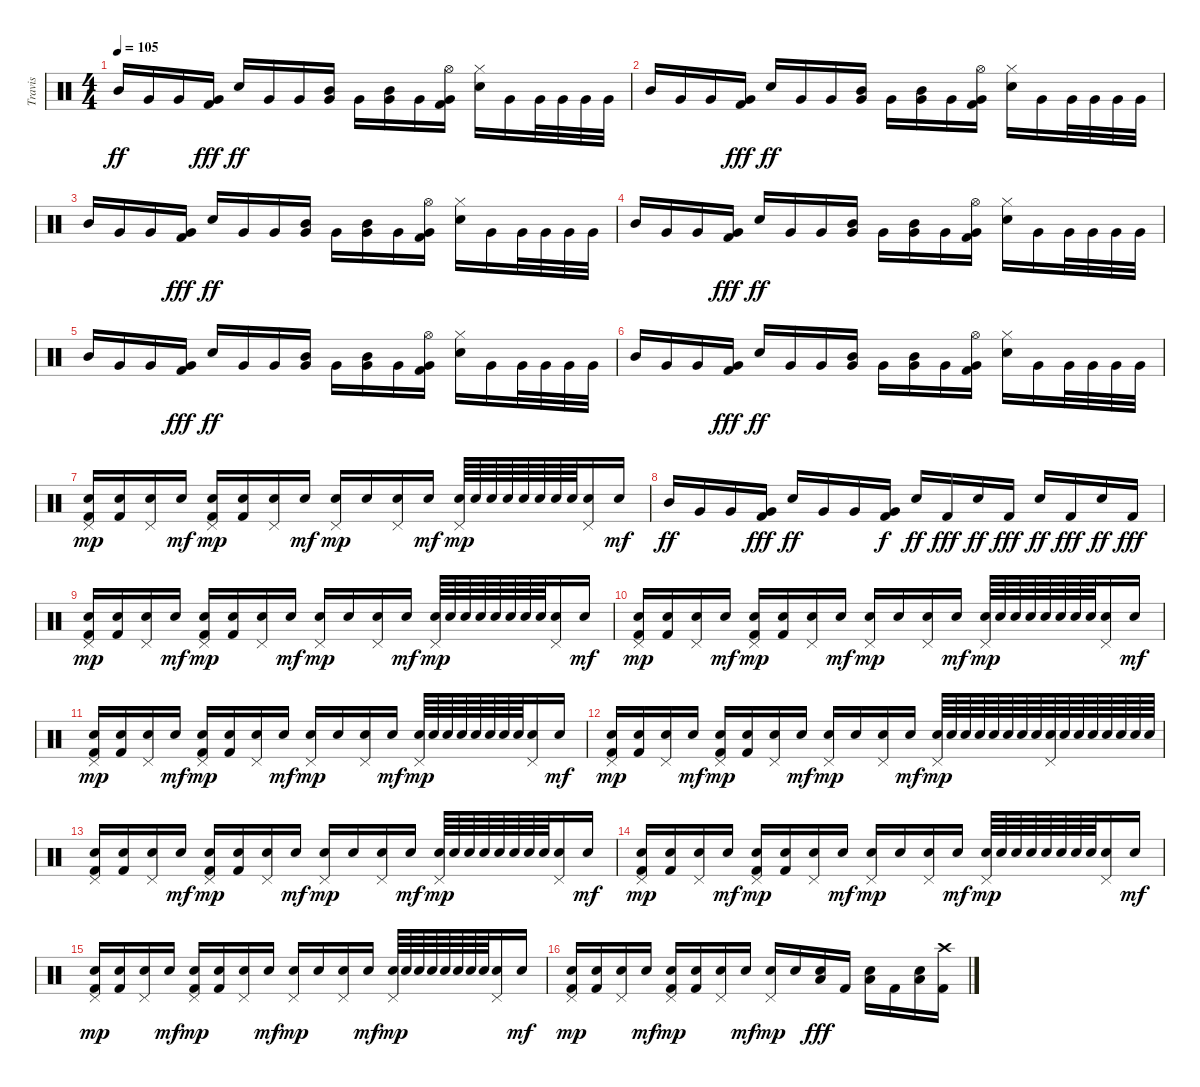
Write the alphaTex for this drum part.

\track ("Travis" "Travis") {instrument percussion}
\staff {score}
\articulation defaults
\ts (4 4)
\tempo 105
\clef neutral
\ks c "Mid Tom (hit)".16{dy ff} "Very Low Tom (hit)".16 "Very Low Tom (hit)".16
("Very Low Tom (hit)" "Kick (hit) 2").16{dy fff} "Electric Snare (hit)".16{dy ff} "Very Low Tom (hit)".16 "Very Low Tom (hit)".16 ("Mid Tom (hit)" "Very Low Tom (hit)").16 "Very Low Tom (hit)".16 ("Mid Tom (hit)" "Very Low Tom (hit)").16 "Very Low Tom (hit)".16 ("Hi-Hat (open)" "Very Low Tom (hit)" "Kick (hit) 2").16 ("Hi-Hat (closed)" "Electric Snare (hit)").16 "Very Low Tom (hit)".16 "Very Low Tom (hit)".32 "Very Low Tom (hit)".32 "Very Low Tom (hit)".32 "Very Low Tom (hit)".32 |
"Mid Tom (hit)".16 "Very Low Tom (hit)".16 "Very Low Tom (hit)".16 ("Very Low Tom (hit)" "Kick (hit) 2").16{dy fff} "Electric Snare (hit)".16{dy ff} "Very Low Tom (hit)".16 "Very Low Tom (hit)".16 ("Mid Tom (hit)" "Very Low Tom (hit)").16 "Very Low Tom (hit)".16 ("Mid Tom (hit)" "Very Low Tom (hit)").16 "Very Low Tom (hit)".16 ("Hi-Hat (open)" "Very Low Tom (hit)" "Kick (hit) 2").16 ("Hi-Hat (closed)" "Electric Snare (hit)").16 "Very Low Tom (hit)".16 "Very Low Tom (hit)".32 "Very Low Tom (hit)".32 "Very Low Tom (hit)".32 "Very Low Tom (hit)".32 |
"Mid Tom (hit)".16 "Very Low Tom (hit)".16 "Very Low Tom (hit)".16 ("Very Low Tom (hit)" "Kick (hit) 2").16{dy fff} "Electric Snare (hit)".16{dy ff} "Very Low Tom (hit)".16 "Very Low Tom (hit)".16 ("Mid Tom (hit)" "Very Low Tom (hit)").16 "Very Low Tom (hit)".16 ("Mid Tom (hit)" "Very Low Tom (hit)").16 "Very Low Tom (hit)".16 ("Hi-Hat (open)" "Very Low Tom (hit)" "Kick (hit) 2").16 ("Hi-Hat (closed)" "Electric Snare (hit)").16 "Very Low Tom (hit)".16 "Very Low Tom (hit)".32 "Very Low Tom (hit)".32 "Very Low Tom (hit)".32 "Very Low Tom (hit)".32 |
"Mid Tom (hit)".16 "Very Low Tom (hit)".16 "Very Low Tom (hit)".16 ("Very Low Tom (hit)" "Kick (hit) 2").16{dy fff} "Electric Snare (hit)".16{dy ff} "Very Low Tom (hit)".16 "Very Low Tom (hit)".16 ("Mid Tom (hit)" "Very Low Tom (hit)").16 "Very Low Tom (hit)".16 ("Mid Tom (hit)" "Very Low Tom (hit)").16 "Very Low Tom (hit)".16 ("Hi-Hat (open)" "Very Low Tom (hit)" "Kick (hit) 2").16 ("Hi-Hat (closed)" "Electric Snare (hit)").16 "Very Low Tom (hit)".16 "Very Low Tom (hit)".32 "Very Low Tom (hit)".32 "Very Low Tom (hit)".32 "Very Low Tom (hit)".32 |
"Mid Tom (hit)".16 "Very Low Tom (hit)".16 "Very Low Tom (hit)".16 ("Very Low Tom (hit)" "Kick (hit) 2").16{dy fff} "Electric Snare (hit)".16{dy ff} "Very Low Tom (hit)".16 "Very Low Tom (hit)".16 ("Mid Tom (hit)" "Very Low Tom (hit)").16 "Very Low Tom (hit)".16 ("Mid Tom (hit)" "Very Low Tom (hit)").16 "Very Low Tom (hit)".16 ("Hi-Hat (open)" "Very Low Tom (hit)" "Kick (hit) 2").16 ("Hi-Hat (closed)" "Electric Snare (hit)").16 "Very Low Tom (hit)".16 "Very Low Tom (hit)".32 "Very Low Tom (hit)".32 "Very Low Tom (hit)".32 "Very Low Tom (hit)".32 |
"Mid Tom (hit)".16 "Very Low Tom (hit)".16 "Very Low Tom (hit)".16 ("Very Low Tom (hit)" "Kick (hit) 2").16{dy fff} "Electric Snare (hit)".16{dy ff} "Very Low Tom (hit)".16 "Very Low Tom (hit)".16 ("Mid Tom (hit)" "Very Low Tom (hit)").16 "Very Low Tom (hit)".16 ("Mid Tom (hit)" "Very Low Tom (hit)").16 "Very Low Tom (hit)".16 ("Hi-Hat (open)" "Very Low Tom (hit)" "Kick (hit) 2").16 ("Hi-Hat (closed)" "Electric Snare (hit)").16 "Very Low Tom (hit)".16 "Very Low Tom (hit)".32 "Very Low Tom (hit)".32 "Very Low Tom (hit)".32 "Very Low Tom (hit)".32 |
("Pedal Hi-Hat (hit)" "Electric Snare (hit)" "Kick (hit) 2").16{dy mp} ("Electric Snare (hit)" "Kick (hit) 2").16 ("Pedal Hi-Hat (hit)" "Electric Snare (hit)").16 "Electric Snare (hit)".16{dy mf} ("Pedal Hi-Hat (hit)" "Electric Snare (hit)" "Kick (hit) 2").16{dy mp} ("Electric Snare (hit)" "Kick (hit) 2").16 ("Pedal Hi-Hat (hit)" "Electric Snare (hit)").16 "Electric Snare (hit)".16{dy mf} ("Pedal Hi-Hat (hit)" "Electric Snare (hit)").16{dy mp} "Electric Snare (hit)".16 ("Pedal Hi-Hat (hit)" "Electric Snare (hit)").16 "Electric Snare (hit)".16{dy mf} ("Pedal Hi-Hat (hit)" "Electric Snare (hit)").64{dy mp} "Electric Snare (hit)".64 "Electric Snare (hit)".64 "Electric Snare (hit)".64 "Electric Snare (hit)".64 "Electric Snare (hit)".64 "Electric Snare (hit)".64 "Electric Snare (hit)".64 ("Pedal Hi-Hat (hit)" "Electric Snare (hit)").16 "Electric Snare (hit)".16{dy mf} |
"Mid Tom (hit)".16{dy ff} "Very Low Tom (hit)".16 "Very Low Tom (hit)".16 ("Very Low Tom (hit)" "Kick (hit) 2").16{dy fff} "Electric Snare (hit)".16{dy ff} "Very Low Tom (hit)".16 "Very Low Tom (hit)".16 ("Very Low Tom (hit)" "Kick (hit) 2").16{dy f} "Electric Snare (hit)".16{dy ff} "Kick (hit) 2".16{dy fff} "Electric Snare (hit)".16{dy ff} "Kick (hit) 2".16{dy fff} "Electric Snare (hit)".16{dy ff} "Kick (hit) 2".16{dy fff} "Electric Snare (hit)".16{dy ff} "Kick (hit) 2".16{dy fff} |
("Pedal Hi-Hat (hit)" "Electric Snare (hit)" "Kick (hit) 2").16{dy mp} ("Electric Snare (hit)" "Kick (hit) 2").16 ("Pedal Hi-Hat (hit)" "Electric Snare (hit)").16 "Electric Snare (hit)".16{dy mf} ("Pedal Hi-Hat (hit)" "Electric Snare (hit)" "Kick (hit) 2").16{dy mp} ("Electric Snare (hit)" "Kick (hit) 2").16 ("Pedal Hi-Hat (hit)" "Electric Snare (hit)").16 "Electric Snare (hit)".16{dy mf} ("Pedal Hi-Hat (hit)" "Electric Snare (hit)").16{dy mp} "Electric Snare (hit)".16 ("Pedal Hi-Hat (hit)" "Electric Snare (hit)").16 "Electric Snare (hit)".16{dy mf} ("Pedal Hi-Hat (hit)" "Electric Snare (hit)").64{dy mp} "Electric Snare (hit)".64 "Electric Snare (hit)".64 "Electric Snare (hit)".64 "Electric Snare (hit)".64 "Electric Snare (hit)".64 "Electric Snare (hit)".64 "Electric Snare (hit)".64 ("Pedal Hi-Hat (hit)" "Electric Snare (hit)").16 "Electric Snare (hit)".16{dy mf} |
("Pedal Hi-Hat (hit)" "Electric Snare (hit)" "Kick (hit) 2").16{dy mp} ("Electric Snare (hit)" "Kick (hit) 2").16 ("Pedal Hi-Hat (hit)" "Electric Snare (hit)").16 "Electric Snare (hit)".16{dy mf} ("Pedal Hi-Hat (hit)" "Electric Snare (hit)" "Kick (hit) 2").16{dy mp} ("Electric Snare (hit)" "Kick (hit) 2").16 ("Pedal Hi-Hat (hit)" "Electric Snare (hit)").16 "Electric Snare (hit)".16{dy mf} ("Pedal Hi-Hat (hit)" "Electric Snare (hit)").16{dy mp} "Electric Snare (hit)".16 ("Pedal Hi-Hat (hit)" "Electric Snare (hit)").16 "Electric Snare (hit)".16{dy mf} ("Pedal Hi-Hat (hit)" "Electric Snare (hit)").64{dy mp} "Electric Snare (hit)".64 "Electric Snare (hit)".64 "Electric Snare (hit)".64 "Electric Snare (hit)".64 "Electric Snare (hit)".64 "Electric Snare (hit)".64 "Electric Snare (hit)".64 ("Pedal Hi-Hat (hit)" "Electric Snare (hit)").16 "Electric Snare (hit)".16{dy mf} |
("Pedal Hi-Hat (hit)" "Electric Snare (hit)" "Kick (hit) 2").16{dy mp} ("Electric Snare (hit)" "Kick (hit) 2").16 ("Pedal Hi-Hat (hit)" "Electric Snare (hit)").16 "Electric Snare (hit)".16{dy mf} ("Pedal Hi-Hat (hit)" "Electric Snare (hit)" "Kick (hit) 2").16{dy mp} ("Electric Snare (hit)" "Kick (hit) 2").16 ("Pedal Hi-Hat (hit)" "Electric Snare (hit)").16 "Electric Snare (hit)".16{dy mf} ("Pedal Hi-Hat (hit)" "Electric Snare (hit)").16{dy mp} "Electric Snare (hit)".16 ("Pedal Hi-Hat (hit)" "Electric Snare (hit)").16 "Electric Snare (hit)".16{dy mf} ("Pedal Hi-Hat (hit)" "Electric Snare (hit)").64{dy mp} "Electric Snare (hit)".64 "Electric Snare (hit)".64 "Electric Snare (hit)".64 "Electric Snare (hit)".64 "Electric Snare (hit)".64 "Electric Snare (hit)".64 "Electric Snare (hit)".64 ("Pedal Hi-Hat (hit)" "Electric Snare (hit)").16 "Electric Snare (hit)".16{dy mf} |
("Pedal Hi-Hat (hit)" "Electric Snare (hit)" "Kick (hit) 2").16{dy mp} ("Electric Snare (hit)" "Kick (hit) 2").16 ("Pedal Hi-Hat (hit)" "Electric Snare (hit)").16 "Electric Snare (hit)".16{dy mf} ("Pedal Hi-Hat (hit)" "Electric Snare (hit)" "Kick (hit) 2").16{dy mp} ("Electric Snare (hit)" "Kick (hit) 2").16 ("Pedal Hi-Hat (hit)" "Electric Snare (hit)").16 "Electric Snare (hit)".16{dy mf} ("Pedal Hi-Hat (hit)" "Electric Snare (hit)").16{dy mp} "Electric Snare (hit)".16 ("Pedal Hi-Hat (hit)" "Electric Snare (hit)").16 "Electric Snare (hit)".16{dy mf} ("Pedal Hi-Hat (hit)" "Electric Snare (hit)").64{dy mp} "Electric Snare (hit)".64 "Electric Snare (hit)".64 "Electric Snare (hit)".64 "Electric Snare (hit)".64 "Electric Snare (hit)".64 "Electric Snare (hit)".64 "Electric Snare (hit)".64 ("Pedal Hi-Hat (hit)" "Electric Snare (hit)").64 "Electric Snare (hit)".64 "Electric Snare (hit)".64 "Electric Snare (hit)".64 "Electric Snare (hit)".64 "Electric Snare (hit)".64 "Electric Snare (hit)".64 "Electric Snare (hit)".64 |
("Pedal Hi-Hat (hit)" "Electric Snare (hit)" "Kick (hit) 2").16 ("Electric Snare (hit)" "Kick (hit) 2").16 ("Pedal Hi-Hat (hit)" "Electric Snare (hit)").16 "Electric Snare (hit)".16{dy mf} ("Pedal Hi-Hat (hit)" "Electric Snare (hit)" "Kick (hit) 2").16{dy mp} ("Electric Snare (hit)" "Kick (hit) 2").16 ("Pedal Hi-Hat (hit)" "Electric Snare (hit)").16 "Electric Snare (hit)".16{dy mf} ("Pedal Hi-Hat (hit)" "Electric Snare (hit)").16{dy mp} "Electric Snare (hit)".16 ("Pedal Hi-Hat (hit)" "Electric Snare (hit)").16 "Electric Snare (hit)".16{dy mf} ("Pedal Hi-Hat (hit)" "Electric Snare (hit)").64{dy mp} "Electric Snare (hit)".64 "Electric Snare (hit)".64 "Electric Snare (hit)".64 "Electric Snare (hit)".64 "Electric Snare (hit)".64 "Electric Snare (hit)".64 "Electric Snare (hit)".64 ("Pedal Hi-Hat (hit)" "Electric Snare (hit)").16 "Electric Snare (hit)".16{dy mf} |
("Pedal Hi-Hat (hit)" "Electric Snare (hit)" "Kick (hit) 2").16{dy mp} ("Electric Snare (hit)" "Kick (hit) 2").16 ("Pedal Hi-Hat (hit)" "Electric Snare (hit)").16 "Electric Snare (hit)".16{dy mf} ("Pedal Hi-Hat (hit)" "Electric Snare (hit)" "Kick (hit) 2").16{dy mp} ("Electric Snare (hit)" "Kick (hit) 2").16 ("Pedal Hi-Hat (hit)" "Electric Snare (hit)").16 "Electric Snare (hit)".16{dy mf} ("Pedal Hi-Hat (hit)" "Electric Snare (hit)").16{dy mp} "Electric Snare (hit)".16 ("Pedal Hi-Hat (hit)" "Electric Snare (hit)").16 "Electric Snare (hit)".16{dy mf} ("Pedal Hi-Hat (hit)" "Electric Snare (hit)").64{dy mp} "Electric Snare (hit)".64 "Electric Snare (hit)".64 "Electric Snare (hit)".64 "Electric Snare (hit)".64 "Electric Snare (hit)".64 "Electric Snare (hit)".64 "Electric Snare (hit)".64 ("Pedal Hi-Hat (hit)" "Electric Snare (hit)").16 "Electric Snare (hit)".16{dy mf} |
("Pedal Hi-Hat (hit)" "Electric Snare (hit)" "Kick (hit) 2").16{dy mp} ("Electric Snare (hit)" "Kick (hit) 2").16 ("Pedal Hi-Hat (hit)" "Electric Snare (hit)").16 "Electric Snare (hit)".16{dy mf} ("Pedal Hi-Hat (hit)" "Electric Snare (hit)" "Kick (hit) 2").16{dy mp} ("Electric Snare (hit)" "Kick (hit) 2").16 ("Pedal Hi-Hat (hit)" "Electric Snare (hit)").16 "Electric Snare (hit)".16{dy mf} ("Pedal Hi-Hat (hit)" "Electric Snare (hit)").16{dy mp} "Electric Snare (hit)".16 ("Pedal Hi-Hat (hit)" "Electric Snare (hit)").16 "Electric Snare (hit)".16{dy mf} ("Pedal Hi-Hat (hit)" "Electric Snare (hit)").64{dy mp} "Electric Snare (hit)".64 "Electric Snare (hit)".64 "Electric Snare (hit)".64 "Electric Snare (hit)".64 "Electric Snare (hit)".64 "Electric Snare (hit)".64 "Electric Snare (hit)".64 ("Pedal Hi-Hat (hit)" "Electric Snare (hit)").16 "Electric Snare (hit)".16{dy mf} |
("Pedal Hi-Hat (hit)" "Electric Snare (hit)" "Kick (hit) 2").16{dy mp} ("Electric Snare (hit)" "Kick (hit) 2").16 ("Pedal Hi-Hat (hit)" "Electric Snare (hit)").16 "Electric Snare (hit)".16{dy mf} ("Pedal Hi-Hat (hit)" "Electric Snare (hit)" "Kick (hit) 2").16{dy mp} ("Electric Snare (hit)" "Kick (hit) 2").16 ("Pedal Hi-Hat (hit)" "Electric Snare (hit)").16 "Electric Snare (hit)".16{dy mf} ("Pedal Hi-Hat (hit)" "Electric Snare (hit)").16{dy mp} "Electric Snare (hit)".16 ("Low Tom (hit)" "Electric Snare (hit)").16{dy fff} "Kick (hit) 2".16 ("Low Tom (hit)" "Electric Snare (hit)").16 "Kick (hit) 2".16 ("Low Tom (hit)" "Electric Snare (hit)").16 ("Crash high (hit)" "Kick (hit) 2").16
